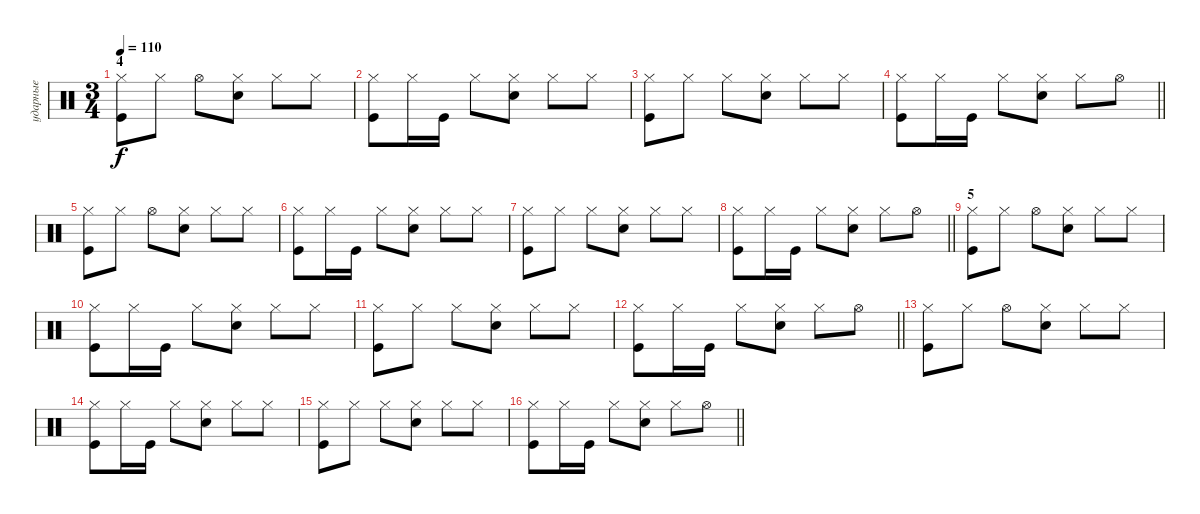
\track ("ударные" "ударные") {instrument percussion}
\staff {score}
\articulation defaults
\ts (3 4)
\section ("" "4")
\tempo 110
\clef neutral
\ks c
("Hi-Hat (closed)" "Kick (hit)").8{dy f} "Hi-Hat (closed)".8 "Hi-Hat (open)".8 ("Hi-Hat (closed)" "Electric Snare (hit)").8 "Hi-Hat (closed)".8 "Hi-Hat (closed)".8 |
("Hi-Hat (closed)" "Kick (hit)").8 "Hi-Hat (closed)".16 "Kick (hit)".16 "Hi-Hat (closed)".8 ("Hi-Hat (closed)" "Electric Snare (hit)").8 "Hi-Hat (closed)".8 "Hi-Hat (closed)".8 |
("Hi-Hat (closed)" "Kick (hit)").8 "Hi-Hat (closed)".8 "Hi-Hat (closed)".8 ("Hi-Hat (closed)" "Electric Snare (hit)").8 "Hi-Hat (closed)".8 "Hi-Hat (closed)".8 |
\barLineRight lightlight
("Hi-Hat (closed)" "Kick (hit)").8 "Hi-Hat (closed)".16 "Kick (hit)".16 "Hi-Hat (closed)".8 ("Hi-Hat (closed)" "Electric Snare (hit)").8 "Hi-Hat (closed)".8 "Hi-Hat (open)".8 |
("Hi-Hat (closed)" "Kick (hit)").8 "Hi-Hat (closed)".8 "Hi-Hat (open)".8 ("Hi-Hat (closed)" "Electric Snare (hit)").8 "Hi-Hat (closed)".8 "Hi-Hat (closed)".8 |
("Hi-Hat (closed)" "Kick (hit)").8 "Hi-Hat (closed)".16 "Kick (hit)".16 "Hi-Hat (closed)".8 ("Hi-Hat (closed)" "Electric Snare (hit)").8 "Hi-Hat (closed)".8 "Hi-Hat (closed)".8 |
("Hi-Hat (closed)" "Kick (hit)").8 "Hi-Hat (closed)".8 "Hi-Hat (closed)".8 ("Hi-Hat (closed)" "Electric Snare (hit)").8 "Hi-Hat (closed)".8 "Hi-Hat (closed)".8 |
\barLineRight lightlight
("Hi-Hat (closed)" "Kick (hit)").8 "Hi-Hat (closed)".16 "Kick (hit)".16 "Hi-Hat (closed)".8 ("Hi-Hat (closed)" "Electric Snare (hit)").8 "Hi-Hat (closed)".8 "Hi-Hat (open)".8 |
\section ("" "5")
("Hi-Hat (closed)" "Kick (hit)").8 "Hi-Hat (closed)".8 "Hi-Hat (open)".8 ("Hi-Hat (closed)" "Electric Snare (hit)").8 "Hi-Hat (closed)".8 "Hi-Hat (closed)".8 |
("Hi-Hat (closed)" "Kick (hit)").8 "Hi-Hat (closed)".16 "Kick (hit)".16 "Hi-Hat (closed)".8 ("Hi-Hat (closed)" "Electric Snare (hit)").8 "Hi-Hat (closed)".8 "Hi-Hat (closed)".8 |
("Hi-Hat (closed)" "Kick (hit)").8 "Hi-Hat (closed)".8 "Hi-Hat (closed)".8 ("Hi-Hat (closed)" "Electric Snare (hit)").8 "Hi-Hat (closed)".8 "Hi-Hat (closed)".8 |
\barLineRight lightlight
("Hi-Hat (closed)" "Kick (hit)").8 "Hi-Hat (closed)".16 "Kick (hit)".16 "Hi-Hat (closed)".8 ("Hi-Hat (closed)" "Electric Snare (hit)").8 "Hi-Hat (closed)".8 "Hi-Hat (open)".8 |
("Hi-Hat (closed)" "Kick (hit)").8 "Hi-Hat (closed)".8 "Hi-Hat (open)".8 ("Hi-Hat (closed)" "Electric Snare (hit)").8 "Hi-Hat (closed)".8 "Hi-Hat (closed)".8 |
("Hi-Hat (closed)" "Kick (hit)").8 "Hi-Hat (closed)".16 "Kick (hit)".16 "Hi-Hat (closed)".8 ("Hi-Hat (closed)" "Electric Snare (hit)").8 "Hi-Hat (closed)".8 "Hi-Hat (closed)".8 |
("Hi-Hat (closed)" "Kick (hit)").8 "Hi-Hat (closed)".8 "Hi-Hat (closed)".8 ("Hi-Hat (closed)" "Electric Snare (hit)").8 "Hi-Hat (closed)".8 "Hi-Hat (closed)".8 |
\barLineRight lightlight
("Hi-Hat (closed)" "Kick (hit)").8 "Hi-Hat (closed)".16 "Kick (hit)".16 "Hi-Hat (closed)".8 ("Hi-Hat (closed)" "Electric Snare (hit)").8 "Hi-Hat (closed)".8 "Hi-Hat (open)".8
